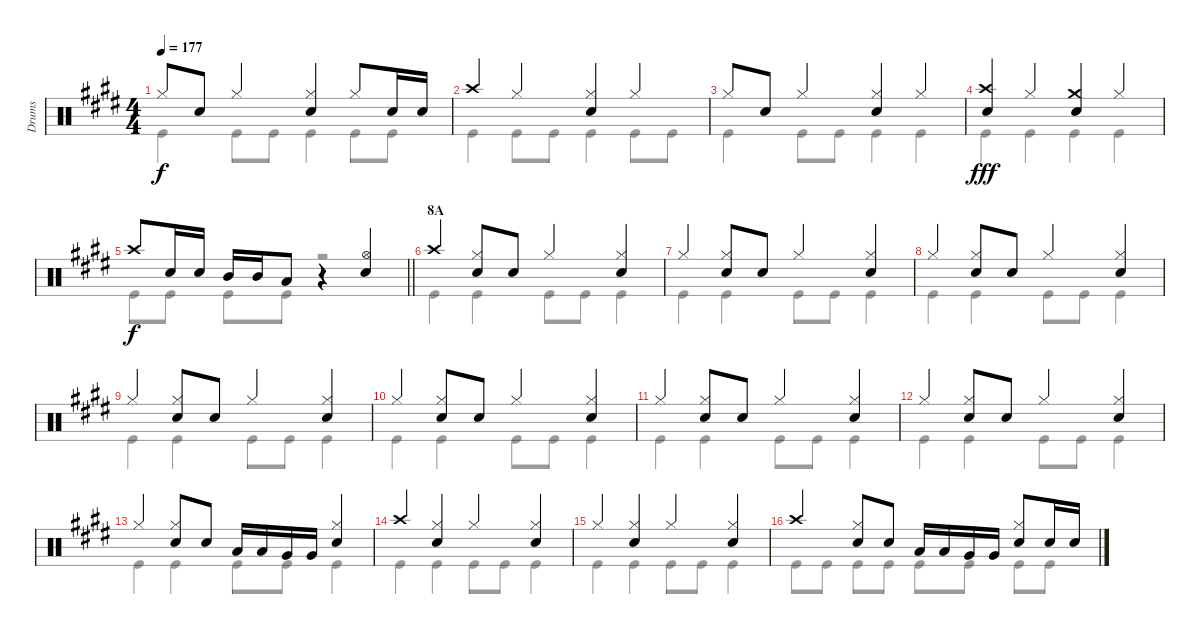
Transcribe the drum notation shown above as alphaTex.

\track ("Drums" "Drums") {instrument percussion}
\staff {score}
\articulation defaults
\voice
\ts (4 4)
\tempo 177
\clef neutral
\ks e "Hi-Hat (closed)".8{dy f} "Snare (hit) 2".8 "Hi-Hat (closed)".4
("Hi-Hat (closed)" "Snare (hit) 2").4 "Hi-Hat (closed)".8 "Snare (hit) 2".16 "Snare (hit) 2".16 |
"Crash high (hit)".4 "Hi-Hat (closed)".4 ("Hi-Hat (closed)" "Snare (hit) 2").4 "Hi-Hat (closed)".4 |
"Hi-Hat (closed)".8 "Snare (hit) 2".8 "Hi-Hat (closed)".4 ("Hi-Hat (closed)" "Snare (hit) 2").4 "Hi-Hat (closed)".4 |
("Crash high (hit)" "Snare (hit) 2").4{dy fff} "Hi-Hat (closed)".4 ("Crash medium (hit)" "Snare (hit) 2").4 "Hi-Hat (closed)".4 |
\barLineRight lightlight "Crash high (hit)".8{dy f} "Snare (hit) 2".16 "Snare (hit) 2".16 "Mid Tom (hit)".16 "Mid Tom (hit)".16 "Low Tom (hit)".8
r.4 ("Hi-Hat (open)" "Snare (hit) 2").4 |
\section ("" "8A")
"Crash high (hit)".4 ("Hi-Hat (closed)" "Snare (hit) 2").8 "Snare (hit) 2".8 "Hi-Hat (closed)".4 ("Hi-Hat (closed)" "Snare (hit) 2").4 |
"Hi-Hat (closed)".4 ("Hi-Hat (closed)" "Snare (hit) 2").8 "Snare (hit) 2".8 "Hi-Hat (closed)".4 ("Hi-Hat (closed)" "Snare (hit) 2").4 |
"Hi-Hat (closed)".4 ("Hi-Hat (closed)" "Snare (hit) 2").8 "Snare (hit) 2".8 "Hi-Hat (closed)".4 ("Hi-Hat (closed)" "Snare (hit) 2").4 |
"Hi-Hat (closed)".4 ("Hi-Hat (closed)" "Snare (hit) 2").8 "Snare (hit) 2".8 "Hi-Hat (closed)".4 ("Hi-Hat (closed)" "Snare (hit) 2").4 |
"Hi-Hat (closed)".4 ("Hi-Hat (closed)" "Snare (hit) 2").8 "Snare (hit) 2".8 "Hi-Hat (closed)".4 ("Hi-Hat (closed)" "Snare (hit) 2").4 |
"Hi-Hat (closed)".4 ("Hi-Hat (closed)" "Snare (hit) 2").8 "Snare (hit) 2".8 "Hi-Hat (closed)".4 ("Hi-Hat (closed)" "Snare (hit) 2").4 |
"Hi-Hat (closed)".4 ("Hi-Hat (closed)" "Snare (hit) 2").8 "Snare (hit) 2".8 "Hi-Hat (closed)".4 ("Hi-Hat (closed)" "Snare (hit) 2").4 |
"Hi-Hat (closed)".4 ("Hi-Hat (closed)" "Snare (hit) 2").8 "Snare (hit) 2".8 "Low Tom (hit)".16 "Low Tom (hit)".16 "Very Low Tom (hit)".16 "Very Low Tom (hit)".16 ("Hi-Hat (closed)" "Snare (hit) 2").4 |
"Crash high (hit)".4 ("Hi-Hat (closed)" "Snare (hit) 2").4 "Hi-Hat (closed)".4 ("Hi-Hat (closed)" "Snare (hit) 2").4 |
"Hi-Hat (closed)".4 ("Hi-Hat (closed)" "Snare (hit) 2").4 "Hi-Hat (closed)".4 ("Hi-Hat (closed)" "Snare (hit) 2").4 |
"Crash high (hit)".4 ("Hi-Hat (closed)" "Snare (hit) 2").8 "Snare (hit) 2".8 "Low Tom (hit)".16 "Low Tom (hit)".16 "Very Low Tom (hit)".16 "Very Low Tom (hit)".16 ("Hi-Hat (closed)" "Snare (hit) 2").8 "Snare (hit) 2".16 "Snare (hit) 2".16
\voice
\clef neutral
\ottava regular
\simile none
\ks e "Kick (hit)".4{dy f} "Kick (hit)".8 "Kick (hit)".8 "Kick (hit)".4 "Kick (hit)".8 "Kick (hit)".8
|
"Kick (hit)".4 "Kick (hit)".8 "Kick (hit)".8 "Kick (hit)".4 "Kick (hit)".8 "Kick (hit)".8 |
"Kick (hit)".4 "Kick (hit)".8 "Kick (hit)".8 "Kick (hit)".4 "Kick (hit)".4 |
"Kick (hit)".4{dy fff} "Kick (hit)".4 "Kick (hit)".4 "Kick (hit)".4 |
\barLineRight lightlight "Kick (hit)".8{dy f} "Kick (hit)".8 "Kick (hit)".8 "Kick (hit)".8
r.2 |
"Kick (hit)".4 "Kick (hit)".4 "Kick (hit)".8 "Kick (hit)".8 "Kick (hit)".4 |
"Kick (hit)".4 "Kick (hit)".4 "Kick (hit)".8 "Kick (hit)".8 "Kick (hit)".4 |
"Kick (hit)".4 "Kick (hit)".4 "Kick (hit)".8 "Kick (hit)".8 "Kick (hit)".4 |
"Kick (hit)".4 "Kick (hit)".4 "Kick (hit)".8 "Kick (hit)".8 "Kick (hit)".4 |
"Kick (hit)".4 "Kick (hit)".4 "Kick (hit)".8 "Kick (hit)".8 "Kick (hit)".4 |
"Kick (hit)".4 "Kick (hit)".4 "Kick (hit)".8 "Kick (hit)".8 "Kick (hit)".4 |
"Kick (hit)".4 "Kick (hit)".4 "Kick (hit)".8 "Kick (hit)".8 "Kick (hit)".4 |
"Kick (hit)".4 "Kick (hit)".4 "Kick (hit)".8 "Kick (hit)".8 "Kick (hit)".4 |
"Kick (hit)".4 "Kick (hit)".4 "Kick (hit)".8 "Kick (hit)".8 "Kick (hit)".4 |
"Kick (hit)".4 "Kick (hit)".4 "Kick (hit)".8 "Kick (hit)".8 "Kick (hit)".4 |
"Kick (hit)".8 "Kick (hit)".8 "Kick (hit)".8 "Kick (hit)".8 "Kick (hit)".8 "Kick (hit)".8 "Kick (hit)".8 "Kick (hit)".8
